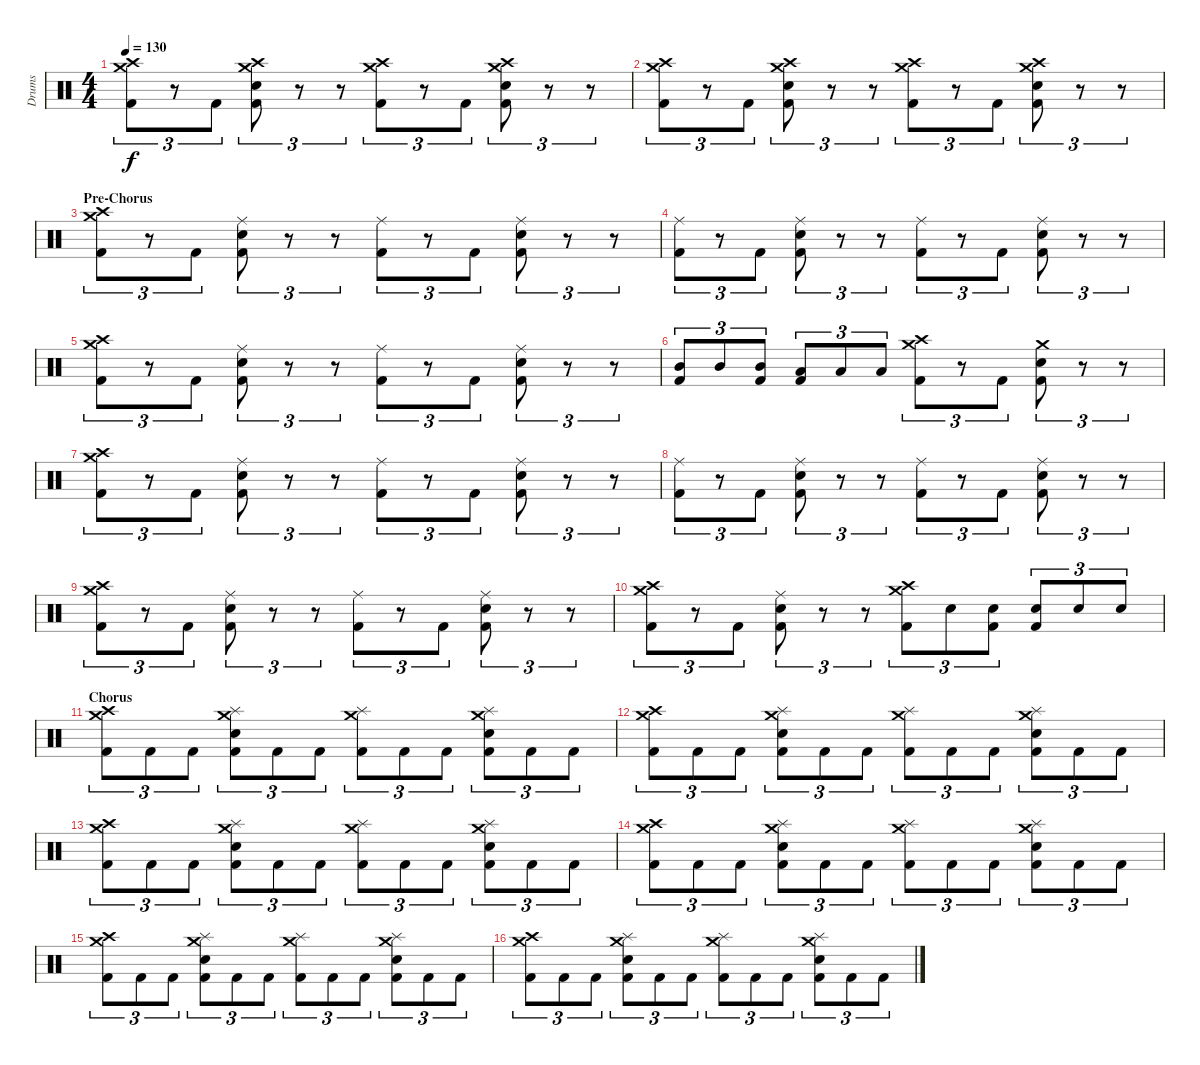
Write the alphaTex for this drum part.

\track ("Drums" "Drums") {instrument percussion}
\staff {score}
\articulation defaults
\ts (4 4)
\tempo 130
\clef neutral
\ks c
("Crash medium (hit)" "Crash high (hit)" "Kick (hit) 2").8{tu (3 2) dy f} r.8{tu (3 2)} "Kick (hit) 2".8{tu (3 2)} ("Crash medium (hit)" "Crash high (hit)" "Snare (hit) 2" "Kick (hit) 2").8{tu (3 2)} r.8{tu (3 2)} r.8{tu (3 2)} ("Crash medium (hit)" "Crash high (hit)" "Kick (hit) 2").8{tu (3 2)} r.8{tu (3 2)} "Kick (hit) 2".8{tu (3 2)} ("Crash medium (hit)" "Crash high (hit)" "Snare (hit) 2" "Kick (hit) 2").8{tu (3 2)} r.8{tu (3 2)} r.8{tu (3 2)} |
("Crash medium (hit)" "Crash high (hit)" "Kick (hit) 2").8{tu (3 2)} r.8{tu (3 2)} "Kick (hit) 2".8{tu (3 2)} ("Crash medium (hit)" "Crash high (hit)" "Snare (hit) 2" "Kick (hit) 2").8{tu (3 2)} r.8{tu (3 2)} r.8{tu (3 2)} ("Crash medium (hit)" "Crash high (hit)" "Kick (hit) 2").8{tu (3 2)} r.8{tu (3 2)} "Kick (hit) 2".8{tu (3 2)} ("Crash medium (hit)" "Crash high (hit)" "Snare (hit) 2" "Kick (hit) 2").8{tu (3 2)} r.8{tu (3 2)} r.8{tu (3 2)} |
\section ("" "Pre-Chorus")
("Crash medium (hit)" "Crash high (hit)" "Kick (hit) 2").8{tu (3 2)} r.8{tu (3 2)} "Kick (hit) 2".8{tu (3 2)} ("Ride (middle)" "Snare (hit) 2" "Kick (hit) 2").8{tu (3 2)} r.8{tu (3 2)} r.8{tu (3 2)} ("Ride (middle)" "Kick (hit) 2").8{tu (3 2)} r.8{tu (3 2)} "Kick (hit) 2".8{tu (3 2)} ("Ride (middle)" "Snare (hit) 2" "Kick (hit) 2").8{tu (3 2)} r.8{tu (3 2)} r.8{tu (3 2)} |
("Ride (middle)" "Kick (hit) 2").8{tu (3 2)} r.8{tu (3 2)} "Kick (hit) 2".8{tu (3 2)} ("Ride (middle)" "Snare (hit) 2" "Kick (hit) 2").8{tu (3 2)} r.8{tu (3 2)} r.8{tu (3 2)} ("Ride (middle)" "Kick (hit) 2").8{tu (3 2)} r.8{tu (3 2)} "Kick (hit) 2".8{tu (3 2)} ("Ride (middle)" "Snare (hit) 2" "Kick (hit) 2").8{tu (3 2)} r.8{tu (3 2)} r.8{tu (3 2)} |
("Crash medium (hit)" "Crash high (hit)" "Kick (hit) 2").8{tu (3 2)} r.8{tu (3 2)} "Kick (hit) 2".8{tu (3 2)} ("Ride (middle)" "Snare (hit) 2" "Kick (hit) 2").8{tu (3 2)} r.8{tu (3 2)} r.8{tu (3 2)} ("Ride (middle)" "Kick (hit) 2").8{tu (3 2)} r.8{tu (3 2)} "Kick (hit) 2".8{tu (3 2)} ("Ride (middle)" "Snare (hit) 2" "Kick (hit) 2").8{tu (3 2)} r.8{tu (3 2)} r.8{tu (3 2)} |
("Mid Tom (hit)" "Kick (hit) 2").8{tu (3 2)} "Mid Tom (hit)".8{tu (3 2)} ("Mid Tom (hit)" "Kick (hit) 2").8{tu (3 2)} ("Low Tom (hit)" "Kick (hit) 2").8{tu (3 2)} "Low Tom (hit)".8{tu (3 2)} "Low Tom (hit)".8{tu (3 2)} ("Crash medium (hit)" "Crash high (hit)" "Kick (hit) 2").8{tu (3 2)} r.8{tu (3 2)} "Kick (hit) 2".8{tu (3 2)} ("Crash medium (hit)" "Snare (hit) 2" "Kick (hit) 2").8{tu (3 2)} r.8{tu (3 2)} r.8{tu (3 2)} |
("Crash medium (hit)" "Crash high (hit)" "Kick (hit) 2").8{tu (3 2)} r.8{tu (3 2)} "Kick (hit) 2".8{tu (3 2)} ("Ride (middle)" "Snare (hit) 2" "Kick (hit) 2").8{tu (3 2)} r.8{tu (3 2)} r.8{tu (3 2)} ("Ride (middle)" "Kick (hit) 2").8{tu (3 2)} r.8{tu (3 2)} "Kick (hit) 2".8{tu (3 2)} ("Ride (middle)" "Snare (hit) 2" "Kick (hit) 2").8{tu (3 2)} r.8{tu (3 2)} r.8{tu (3 2)} |
("Ride (middle)" "Kick (hit) 2").8{tu (3 2)} r.8{tu (3 2)} "Kick (hit) 2".8{tu (3 2)} ("Ride (middle)" "Snare (hit) 2" "Kick (hit) 2").8{tu (3 2)} r.8{tu (3 2)} r.8{tu (3 2)} ("Ride (middle)" "Kick (hit) 2").8{tu (3 2)} r.8{tu (3 2)} "Kick (hit) 2".8{tu (3 2)} ("Ride (middle)" "Snare (hit) 2" "Kick (hit) 2").8{tu (3 2)} r.8{tu (3 2)} r.8{tu (3 2)} |
("Crash medium (hit)" "Crash high (hit)" "Kick (hit) 2").8{tu (3 2)} r.8{tu (3 2)} "Kick (hit) 2".8{tu (3 2)} ("Ride (middle)" "Snare (hit) 2" "Kick (hit) 2").8{tu (3 2)} r.8{tu (3 2)} r.8{tu (3 2)} ("Ride (middle)" "Kick (hit) 2").8{tu (3 2)} r.8{tu (3 2)} "Kick (hit) 2".8{tu (3 2)} ("Ride (middle)" "Snare (hit) 2" "Kick (hit) 2").8{tu (3 2)} r.8{tu (3 2)} r.8{tu (3 2)} |
("Crash medium (hit)" "Crash high (hit)" "Kick (hit) 2").8{tu (3 2)} r.8{tu (3 2)} "Kick (hit) 2".8{tu (3 2)} ("Ride (middle)" "Snare (hit) 2" "Kick (hit) 2").8{tu (3 2)} r.8{tu (3 2)} r.8{tu (3 2)} ("Crash medium (hit)" "Crash high (hit)" "Kick (hit) 2").8{tu (3 2)} "Snare (hit) 2".8{tu (3 2)} ("Snare (hit) 2" "Kick (hit) 2").8{tu (3 2)} ("Snare (hit) 2" "Kick (hit) 2").8{tu (3 2)} "Snare (hit) 2".8{tu (3 2)} "Snare (hit) 2".8{tu (3 2)} |
\section ("" "Chorus")
("Crash medium (hit)" "Crash high (hit)" "Kick (hit) 2").8{tu (3 2)} "Kick (hit) 2".8{tu (3 2)} "Kick (hit) 2".8{tu (3 2)} ("Crash medium (hit)" "Splash (hit)" "Snare (hit) 2" "Kick (hit) 2").8{tu (3 2)} "Kick (hit) 2".8{tu (3 2)} "Kick (hit) 2".8{tu (3 2)} ("Crash medium (hit)" "Splash (hit)" "Kick (hit) 2").8{tu (3 2)} "Kick (hit) 2".8{tu (3 2)} "Kick (hit) 2".8{tu (3 2)} ("Crash medium (hit)" "Splash (hit)" "Snare (hit) 2" "Kick (hit) 2").8{tu (3 2)} "Kick (hit) 2".8{tu (3 2)} "Kick (hit) 2".8{tu (3 2)} |
("Crash medium (hit)" "Crash high (hit)" "Kick (hit) 2").8{tu (3 2)} "Kick (hit) 2".8{tu (3 2)} "Kick (hit) 2".8{tu (3 2)} ("Crash medium (hit)" "Splash (hit)" "Snare (hit) 2" "Kick (hit) 2").8{tu (3 2)} "Kick (hit) 2".8{tu (3 2)} "Kick (hit) 2".8{tu (3 2)} ("Crash medium (hit)" "Splash (hit)" "Kick (hit) 2").8{tu (3 2)} "Kick (hit) 2".8{tu (3 2)} "Kick (hit) 2".8{tu (3 2)} ("Crash medium (hit)" "Splash (hit)" "Snare (hit) 2" "Kick (hit) 2").8{tu (3 2)} "Kick (hit) 2".8{tu (3 2)} "Kick (hit) 2".8{tu (3 2)} |
("Crash medium (hit)" "Crash high (hit)" "Kick (hit) 2").8{tu (3 2)} "Kick (hit) 2".8{tu (3 2)} "Kick (hit) 2".8{tu (3 2)} ("Crash medium (hit)" "Splash (hit)" "Snare (hit) 2" "Kick (hit) 2").8{tu (3 2)} "Kick (hit) 2".8{tu (3 2)} "Kick (hit) 2".8{tu (3 2)} ("Crash medium (hit)" "Splash (hit)" "Kick (hit) 2").8{tu (3 2)} "Kick (hit) 2".8{tu (3 2)} "Kick (hit) 2".8{tu (3 2)} ("Crash medium (hit)" "Splash (hit)" "Snare (hit) 2" "Kick (hit) 2").8{tu (3 2)} "Kick (hit) 2".8{tu (3 2)} "Kick (hit) 2".8{tu (3 2)} |
("Crash medium (hit)" "Crash high (hit)" "Kick (hit) 2").8{tu (3 2)} "Kick (hit) 2".8{tu (3 2)} "Kick (hit) 2".8{tu (3 2)} ("Crash medium (hit)" "Splash (hit)" "Snare (hit) 2" "Kick (hit) 2").8{tu (3 2)} "Kick (hit) 2".8{tu (3 2)} "Kick (hit) 2".8{tu (3 2)} ("Crash medium (hit)" "Splash (hit)" "Kick (hit) 2").8{tu (3 2)} "Kick (hit) 2".8{tu (3 2)} "Kick (hit) 2".8{tu (3 2)} ("Crash medium (hit)" "Splash (hit)" "Snare (hit) 2" "Kick (hit) 2").8{tu (3 2)} "Kick (hit) 2".8{tu (3 2)} "Kick (hit) 2".8{tu (3 2)} |
("Crash medium (hit)" "Crash high (hit)" "Kick (hit) 2").8{tu (3 2)} "Kick (hit) 2".8{tu (3 2)} "Kick (hit) 2".8{tu (3 2)} ("Crash medium (hit)" "Splash (hit)" "Snare (hit) 2" "Kick (hit) 2").8{tu (3 2)} "Kick (hit) 2".8{tu (3 2)} "Kick (hit) 2".8{tu (3 2)} ("Crash medium (hit)" "Splash (hit)" "Kick (hit) 2").8{tu (3 2)} "Kick (hit) 2".8{tu (3 2)} "Kick (hit) 2".8{tu (3 2)} ("Crash medium (hit)" "Splash (hit)" "Snare (hit) 2" "Kick (hit) 2").8{tu (3 2)} "Kick (hit) 2".8{tu (3 2)} "Kick (hit) 2".8{tu (3 2)} |
("Crash medium (hit)" "Crash high (hit)" "Kick (hit) 2").8{tu (3 2)} "Kick (hit) 2".8{tu (3 2)} "Kick (hit) 2".8{tu (3 2)} ("Crash medium (hit)" "Splash (hit)" "Snare (hit) 2" "Kick (hit) 2").8{tu (3 2)} "Kick (hit) 2".8{tu (3 2)} "Kick (hit) 2".8{tu (3 2)} ("Crash medium (hit)" "Splash (hit)" "Kick (hit) 2").8{tu (3 2)} "Kick (hit) 2".8{tu (3 2)} "Kick (hit) 2".8{tu (3 2)} ("Crash medium (hit)" "Splash (hit)" "Snare (hit) 2" "Kick (hit) 2").8{tu (3 2)} "Kick (hit) 2".8{tu (3 2)} "Kick (hit) 2".8{tu (3 2)}
